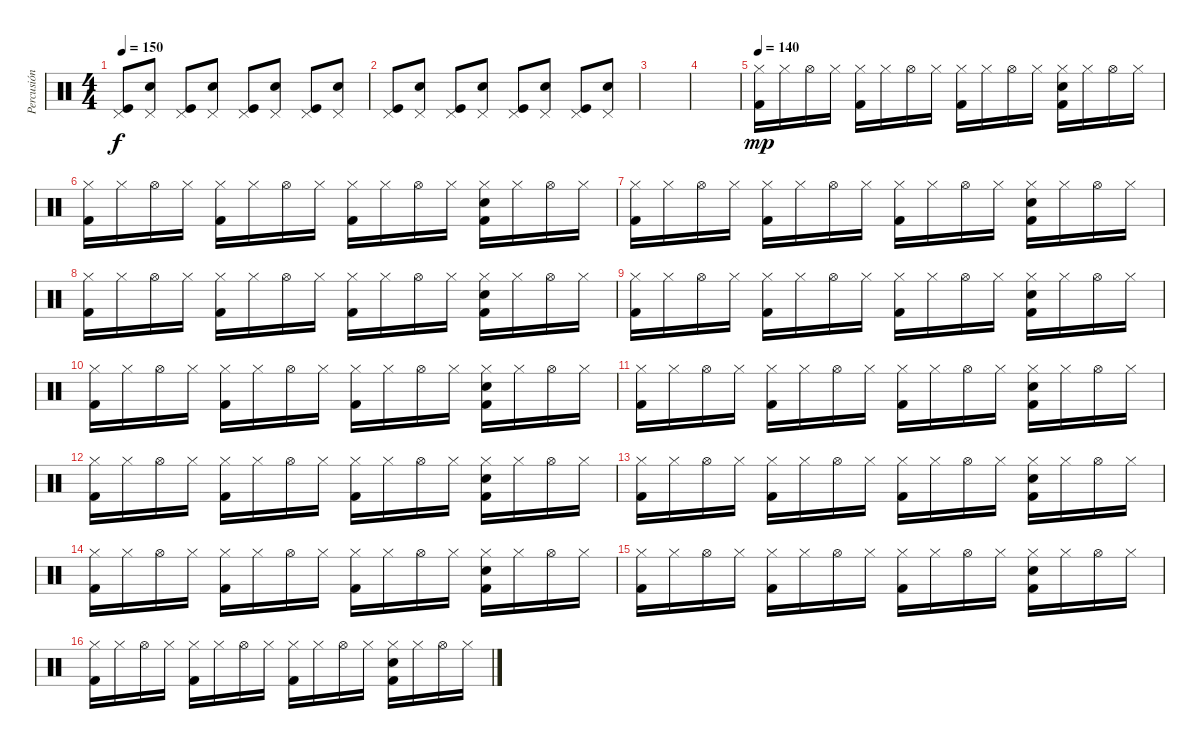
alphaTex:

\track ("Percusión" "Percusión") {instrument percussion}
\staff {score}
\articulation defaults
\ts (4 4)
\tempo 150
\clef neutral
\ks c
("Pedal Hi-Hat (hit)" "Kick (hit)").8{dy f} ("Pedal Hi-Hat (hit)" "Snare (hit) 2").8 ("Pedal Hi-Hat (hit)" "Kick (hit)").8 ("Pedal Hi-Hat (hit)" "Snare (hit) 2").8 ("Pedal Hi-Hat (hit)" "Kick (hit)").8 ("Pedal Hi-Hat (hit)" "Snare (hit) 2").8 ("Pedal Hi-Hat (hit)" "Kick (hit)").8 ("Pedal Hi-Hat (hit)" "Snare (hit) 2").8 |
("Pedal Hi-Hat (hit)" "Kick (hit)").8 ("Pedal Hi-Hat (hit)" "Snare (hit) 2").8 ("Pedal Hi-Hat (hit)" "Kick (hit)").8 ("Pedal Hi-Hat (hit)" "Snare (hit) 2").8 ("Pedal Hi-Hat (hit)" "Kick (hit)").8 ("Pedal Hi-Hat (hit)" "Snare (hit) 2").8 ("Pedal Hi-Hat (hit)" "Kick (hit)").8 ("Pedal Hi-Hat (hit)" "Snare (hit) 2").8 |
|
|
\tempo 140
("Hi-Hat (closed)" "Kick (hit) 2").16{dy mp} "Hi-Hat (closed)".16 "Hi-Hat (open)".16 "Hi-Hat (closed)".16 ("Hi-Hat (closed)" "Kick (hit) 2").16 "Hi-Hat (closed)".16 "Hi-Hat (open)".16 "Hi-Hat (closed)".16 ("Hi-Hat (closed)" "Kick (hit) 2").16 "Hi-Hat (closed)".16 "Hi-Hat (open)".16 "Hi-Hat (closed)".16 ("Hi-Hat (closed)" "Electric Snare (hit)" "Kick (hit) 2").16 "Hi-Hat (closed)".16 "Hi-Hat (open)".16 "Hi-Hat (closed)".16 |
("Hi-Hat (closed)" "Kick (hit) 2").16 "Hi-Hat (closed)".16 "Hi-Hat (open)".16 "Hi-Hat (closed)".16 ("Hi-Hat (closed)" "Kick (hit) 2").16 "Hi-Hat (closed)".16 "Hi-Hat (open)".16 "Hi-Hat (closed)".16 ("Hi-Hat (closed)" "Kick (hit) 2").16 "Hi-Hat (closed)".16 "Hi-Hat (open)".16 "Hi-Hat (closed)".16 ("Hi-Hat (closed)" "Electric Snare (hit)" "Kick (hit) 2").16 "Hi-Hat (closed)".16 "Hi-Hat (open)".16 "Hi-Hat (closed)".16 |
("Hi-Hat (closed)" "Kick (hit) 2").16 "Hi-Hat (closed)".16 "Hi-Hat (open)".16 "Hi-Hat (closed)".16 ("Hi-Hat (closed)" "Kick (hit) 2").16 "Hi-Hat (closed)".16 "Hi-Hat (open)".16 "Hi-Hat (closed)".16 ("Hi-Hat (closed)" "Kick (hit) 2").16 "Hi-Hat (closed)".16 "Hi-Hat (open)".16 "Hi-Hat (closed)".16 ("Hi-Hat (closed)" "Electric Snare (hit)" "Kick (hit) 2").16 "Hi-Hat (closed)".16 "Hi-Hat (open)".16 "Hi-Hat (closed)".16 |
("Hi-Hat (closed)" "Kick (hit) 2").16 "Hi-Hat (closed)".16 "Hi-Hat (open)".16 "Hi-Hat (closed)".16 ("Hi-Hat (closed)" "Kick (hit) 2").16 "Hi-Hat (closed)".16 "Hi-Hat (open)".16 "Hi-Hat (closed)".16 ("Hi-Hat (closed)" "Kick (hit) 2").16 "Hi-Hat (closed)".16 "Hi-Hat (open)".16 "Hi-Hat (closed)".16 ("Hi-Hat (closed)" "Electric Snare (hit)" "Kick (hit) 2").16 "Hi-Hat (closed)".16 "Hi-Hat (open)".16 "Hi-Hat (closed)".16 |
("Hi-Hat (closed)" "Kick (hit) 2").16 "Hi-Hat (closed)".16 "Hi-Hat (open)".16 "Hi-Hat (closed)".16 ("Hi-Hat (closed)" "Kick (hit) 2").16 "Hi-Hat (closed)".16 "Hi-Hat (open)".16 "Hi-Hat (closed)".16 ("Hi-Hat (closed)" "Kick (hit) 2").16 "Hi-Hat (closed)".16 "Hi-Hat (open)".16 "Hi-Hat (closed)".16 ("Hi-Hat (closed)" "Electric Snare (hit)" "Kick (hit) 2").16 "Hi-Hat (closed)".16 "Hi-Hat (open)".16 "Hi-Hat (closed)".16 |
("Hi-Hat (closed)" "Kick (hit) 2").16 "Hi-Hat (closed)".16 "Hi-Hat (open)".16 "Hi-Hat (closed)".16 ("Hi-Hat (closed)" "Kick (hit) 2").16 "Hi-Hat (closed)".16 "Hi-Hat (open)".16 "Hi-Hat (closed)".16 ("Hi-Hat (closed)" "Kick (hit) 2").16 "Hi-Hat (closed)".16 "Hi-Hat (open)".16 "Hi-Hat (closed)".16 ("Hi-Hat (closed)" "Electric Snare (hit)" "Kick (hit) 2").16 "Hi-Hat (closed)".16 "Hi-Hat (open)".16 "Hi-Hat (closed)".16 |
("Hi-Hat (closed)" "Kick (hit) 2").16 "Hi-Hat (closed)".16 "Hi-Hat (open)".16 "Hi-Hat (closed)".16 ("Hi-Hat (closed)" "Kick (hit) 2").16 "Hi-Hat (closed)".16 "Hi-Hat (open)".16 "Hi-Hat (closed)".16 ("Hi-Hat (closed)" "Kick (hit) 2").16 "Hi-Hat (closed)".16 "Hi-Hat (open)".16 "Hi-Hat (closed)".16 ("Hi-Hat (closed)" "Electric Snare (hit)" "Kick (hit) 2").16 "Hi-Hat (closed)".16 "Hi-Hat (open)".16 "Hi-Hat (closed)".16 |
("Hi-Hat (closed)" "Kick (hit) 2").16 "Hi-Hat (closed)".16 "Hi-Hat (open)".16 "Hi-Hat (closed)".16 ("Hi-Hat (closed)" "Kick (hit) 2").16 "Hi-Hat (closed)".16 "Hi-Hat (open)".16 "Hi-Hat (closed)".16 ("Hi-Hat (closed)" "Kick (hit) 2").16 "Hi-Hat (closed)".16 "Hi-Hat (open)".16 "Hi-Hat (closed)".16 ("Hi-Hat (closed)" "Electric Snare (hit)" "Kick (hit) 2").16 "Hi-Hat (closed)".16 "Hi-Hat (open)".16 "Hi-Hat (closed)".16 |
("Hi-Hat (closed)" "Kick (hit) 2").16 "Hi-Hat (closed)".16 "Hi-Hat (open)".16 "Hi-Hat (closed)".16 ("Hi-Hat (closed)" "Kick (hit) 2").16 "Hi-Hat (closed)".16 "Hi-Hat (open)".16 "Hi-Hat (closed)".16 ("Hi-Hat (closed)" "Kick (hit) 2").16 "Hi-Hat (closed)".16 "Hi-Hat (open)".16 "Hi-Hat (closed)".16 ("Hi-Hat (closed)" "Electric Snare (hit)" "Kick (hit) 2").16 "Hi-Hat (closed)".16 "Hi-Hat (open)".16 "Hi-Hat (closed)".16 |
("Hi-Hat (closed)" "Kick (hit) 2").16 "Hi-Hat (closed)".16 "Hi-Hat (open)".16 "Hi-Hat (closed)".16 ("Hi-Hat (closed)" "Kick (hit) 2").16 "Hi-Hat (closed)".16 "Hi-Hat (open)".16 "Hi-Hat (closed)".16 ("Hi-Hat (closed)" "Kick (hit) 2").16 "Hi-Hat (closed)".16 "Hi-Hat (open)".16 "Hi-Hat (closed)".16 ("Hi-Hat (closed)" "Electric Snare (hit)" "Kick (hit) 2").16 "Hi-Hat (closed)".16 "Hi-Hat (open)".16 "Hi-Hat (closed)".16 |
("Hi-Hat (closed)" "Kick (hit) 2").16 "Hi-Hat (closed)".16 "Hi-Hat (open)".16 "Hi-Hat (closed)".16 ("Hi-Hat (closed)" "Kick (hit) 2").16 "Hi-Hat (closed)".16 "Hi-Hat (open)".16 "Hi-Hat (closed)".16 ("Hi-Hat (closed)" "Kick (hit) 2").16 "Hi-Hat (closed)".16 "Hi-Hat (open)".16 "Hi-Hat (closed)".16 ("Hi-Hat (closed)" "Electric Snare (hit)" "Kick (hit) 2").16 "Hi-Hat (closed)".16 "Hi-Hat (open)".16 "Hi-Hat (closed)".16 |
("Hi-Hat (closed)" "Kick (hit) 2").16 "Hi-Hat (closed)".16 "Hi-Hat (open)".16 "Hi-Hat (closed)".16 ("Hi-Hat (closed)" "Kick (hit) 2").16 "Hi-Hat (closed)".16 "Hi-Hat (open)".16 "Hi-Hat (closed)".16 ("Hi-Hat (closed)" "Kick (hit) 2").16 "Hi-Hat (closed)".16 "Hi-Hat (open)".16 "Hi-Hat (closed)".16 ("Hi-Hat (closed)" "Electric Snare (hit)" "Kick (hit) 2").16 "Hi-Hat (closed)".16 "Hi-Hat (open)".16 "Hi-Hat (closed)".16
